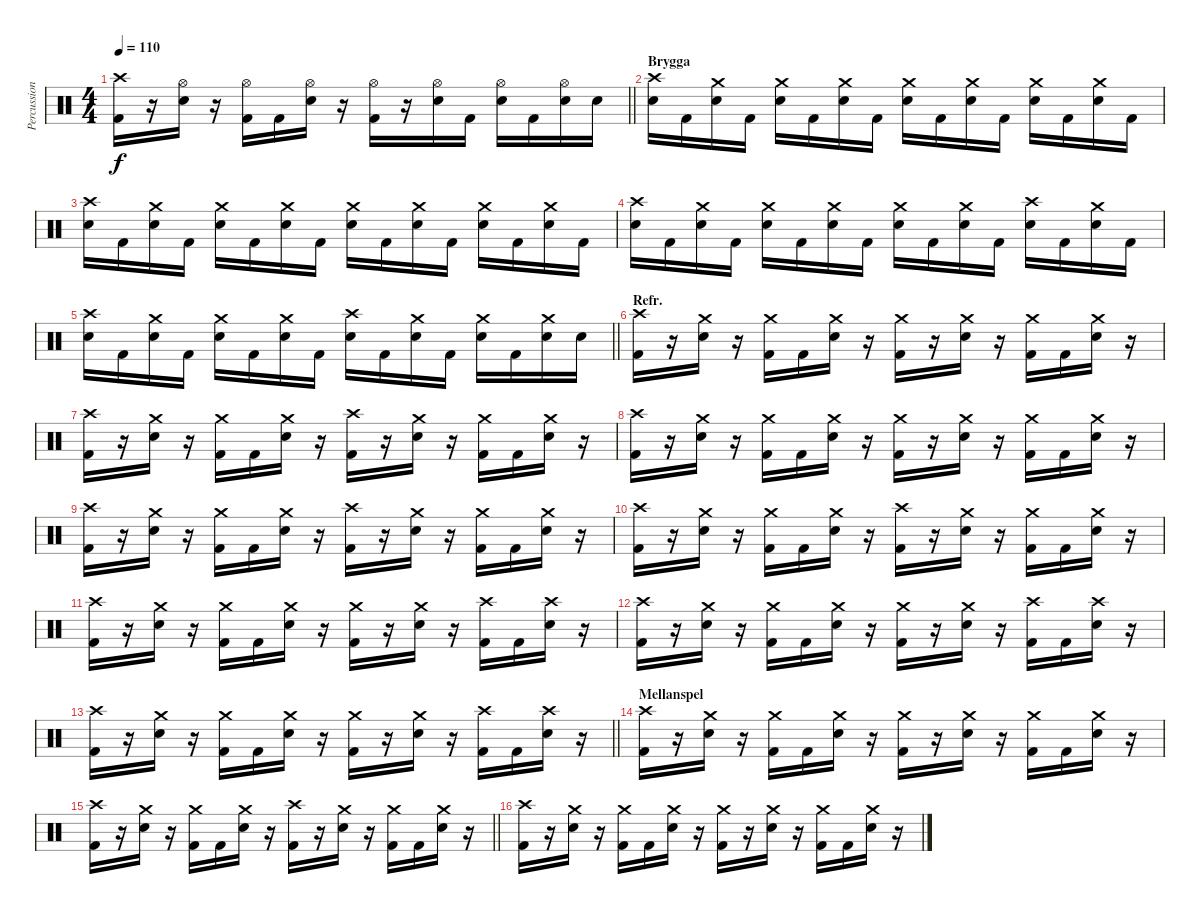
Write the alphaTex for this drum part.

\track ("Percussion" "Percussion") {instrument percussion}
\staff {score}
\articulation defaults
\ts (4 4)
\tempo 110
\clef neutral
\barLineRight lightlight
\ks c
("Crash high (hit)" "Kick (hit) 2").16{dy f} r.16 ("Hi-Hat (open)" "Snare (hit) 2").16 r.16 ("Hi-Hat (open)" "Kick (hit) 2").16 "Kick (hit) 2".16 ("Hi-Hat (open)" "Snare (hit) 2").16 r.16 ("Hi-Hat (open)" "Kick (hit) 2").16 r.16 ("Hi-Hat (open)" "Snare (hit) 2").16 "Kick (hit) 2".16 ("Hi-Hat (open)" "Snare (hit) 2").16 "Kick (hit) 2".16 ("Hi-Hat (open)" "Snare (hit) 2").16 "Snare (hit) 2".16 |
\section ("" "Brygga")
("Crash high (hit)" "Snare (hit) 2").16 "Kick (hit) 2".16 ("Crash medium (hit)" "Snare (hit) 2").16 "Kick (hit) 2".16 ("Crash medium (hit)" "Snare (hit) 2").16 "Kick (hit) 2".16 ("Crash medium (hit)" "Snare (hit) 2").16 "Kick (hit) 2".16 ("Crash medium (hit)" "Snare (hit) 2").16 "Kick (hit) 2".16 ("Crash medium (hit)" "Snare (hit) 2").16 "Kick (hit) 2".16 ("Crash medium (hit)" "Snare (hit) 2").16 "Kick (hit) 2".16 ("Crash medium (hit)" "Snare (hit) 2").16 "Kick (hit) 2".16 |
("Crash high (hit)" "Snare (hit) 2").16 "Kick (hit) 2".16 ("Crash medium (hit)" "Snare (hit) 2").16 "Kick (hit) 2".16 ("Crash medium (hit)" "Snare (hit) 2").16 "Kick (hit) 2".16 ("Crash medium (hit)" "Snare (hit) 2").16 "Kick (hit) 2".16 ("Crash medium (hit)" "Snare (hit) 2").16 "Kick (hit) 2".16 ("Crash medium (hit)" "Snare (hit) 2").16 "Kick (hit) 2".16 ("Crash medium (hit)" "Snare (hit) 2").16 "Kick (hit) 2".16 ("Crash medium (hit)" "Snare (hit) 2").16 "Kick (hit) 2".16 |
("Crash high (hit)" "Snare (hit) 2").16 "Kick (hit) 2".16 ("Crash medium (hit)" "Snare (hit) 2").16 "Kick (hit) 2".16 ("Crash medium (hit)" "Snare (hit) 2").16 "Kick (hit) 2".16 ("Crash medium (hit)" "Snare (hit) 2").16 "Kick (hit) 2".16 ("Crash medium (hit)" "Snare (hit) 2").16 "Kick (hit) 2".16 ("Crash medium (hit)" "Snare (hit) 2").16 "Kick (hit) 2".16 ("Crash high (hit)" "Snare (hit) 2").16 "Kick (hit) 2".16 ("Crash medium (hit)" "Snare (hit) 2").16 "Kick (hit) 2".16 |
\barLineRight lightlight
("Crash high (hit)" "Snare (hit) 2").16 "Kick (hit) 2".16 ("Crash medium (hit)" "Snare (hit) 2").16 "Kick (hit) 2".16 ("Crash medium (hit)" "Snare (hit) 2").16 "Kick (hit) 2".16 ("Crash medium (hit)" "Snare (hit) 2").16 "Kick (hit) 2".16 ("Crash high (hit)" "Snare (hit) 2").16 "Kick (hit) 2".16 ("Crash medium (hit)" "Snare (hit) 2").16 "Kick (hit) 2".16 ("Crash medium (hit)" "Snare (hit) 2").16 "Kick (hit) 2".16 ("Crash medium (hit)" "Snare (hit) 2").16 "Snare (hit) 2".16 |
\section ("" "Refr.")
("Crash high (hit)" "Kick (hit) 2").16 r.16 ("Crash medium (hit)" "Snare (hit) 2").16 r.16 ("Crash medium (hit)" "Kick (hit) 2").16 "Kick (hit) 2".16 ("Crash medium (hit)" "Snare (hit) 2").16 r.16 ("Crash medium (hit)" "Kick (hit) 2").16 r.16 ("Crash medium (hit)" "Snare (hit) 2").16 r.16 ("Crash medium (hit)" "Kick (hit) 2").16 "Kick (hit) 2".16 ("Crash medium (hit)" "Snare (hit) 2").16 r.16 |
("Crash high (hit)" "Kick (hit) 2").16 r.16 ("Crash medium (hit)" "Snare (hit) 2").16 r.16 ("Crash medium (hit)" "Kick (hit) 2").16 "Kick (hit) 2".16 ("Crash medium (hit)" "Snare (hit) 2").16 r.16 ("Crash high (hit)" "Kick (hit) 2").16 r.16 ("Crash medium (hit)" "Snare (hit) 2").16 r.16 ("Crash medium (hit)" "Kick (hit) 2").16 "Kick (hit) 2".16 ("Crash medium (hit)" "Snare (hit) 2").16 r.16 |
("Crash high (hit)" "Kick (hit) 2").16 r.16 ("Crash medium (hit)" "Snare (hit) 2").16 r.16 ("Crash medium (hit)" "Kick (hit) 2").16 "Kick (hit) 2".16 ("Crash medium (hit)" "Snare (hit) 2").16 r.16 ("Crash medium (hit)" "Kick (hit) 2").16 r.16 ("Crash medium (hit)" "Snare (hit) 2").16 r.16 ("Crash medium (hit)" "Kick (hit) 2").16 "Kick (hit) 2".16 ("Crash medium (hit)" "Snare (hit) 2").16 r.16 |
("Crash high (hit)" "Kick (hit) 2").16 r.16 ("Crash medium (hit)" "Snare (hit) 2").16 r.16 ("Crash medium (hit)" "Kick (hit) 2").16 "Kick (hit) 2".16 ("Crash medium (hit)" "Snare (hit) 2").16 r.16 ("Crash high (hit)" "Kick (hit) 2").16 r.16 ("Crash medium (hit)" "Snare (hit) 2").16 r.16 ("Crash medium (hit)" "Kick (hit) 2").16 "Kick (hit) 2".16 ("Crash medium (hit)" "Snare (hit) 2").16 r.16 |
("Crash high (hit)" "Kick (hit) 2").16 r.16 ("Crash medium (hit)" "Snare (hit) 2").16 r.16 ("Crash medium (hit)" "Kick (hit) 2").16 "Kick (hit) 2".16 ("Crash medium (hit)" "Snare (hit) 2").16 r.16 ("Crash high (hit)" "Kick (hit) 2").16 r.16 ("Crash medium (hit)" "Snare (hit) 2").16 r.16 ("Crash medium (hit)" "Kick (hit) 2").16 "Kick (hit) 2".16 ("Crash medium (hit)" "Snare (hit) 2").16 r.16 |
("Crash high (hit)" "Kick (hit) 2").16 r.16 ("Crash medium (hit)" "Snare (hit) 2").16 r.16 ("Crash medium (hit)" "Kick (hit) 2").16 "Kick (hit) 2".16 ("Crash medium (hit)" "Snare (hit) 2").16 r.16 ("Crash medium (hit)" "Kick (hit) 2").16 r.16 ("Crash medium (hit)" "Snare (hit) 2").16 r.16 ("Crash high (hit)" "Kick (hit) 2").16 "Kick (hit) 2".16 ("Crash high (hit)" "Snare (hit) 2").16 r.16 |
("Crash high (hit)" "Kick (hit) 2").16 r.16 ("Crash medium (hit)" "Snare (hit) 2").16 r.16 ("Crash medium (hit)" "Kick (hit) 2").16 "Kick (hit) 2".16 ("Crash medium (hit)" "Snare (hit) 2").16 r.16 ("Crash medium (hit)" "Kick (hit) 2").16 r.16 ("Crash medium (hit)" "Snare (hit) 2").16 r.16 ("Crash high (hit)" "Kick (hit) 2").16 "Kick (hit) 2".16 ("Crash high (hit)" "Snare (hit) 2").16 r.16 |
\barLineRight lightlight
("Crash high (hit)" "Kick (hit) 2").16 r.16 ("Crash medium (hit)" "Snare (hit) 2").16 r.16 ("Crash medium (hit)" "Kick (hit) 2").16 "Kick (hit) 2".16 ("Crash medium (hit)" "Snare (hit) 2").16 r.16 ("Crash medium (hit)" "Kick (hit) 2").16 r.16 ("Crash medium (hit)" "Snare (hit) 2").16 r.16 ("Crash high (hit)" "Kick (hit) 2").16 "Kick (hit) 2".16 ("Crash high (hit)" "Snare (hit) 2").16 r.16 |
\section ("" "Mellanspel")
("Crash high (hit)" "Kick (hit) 2").16 r.16 ("Crash medium (hit)" "Snare (hit) 2").16 r.16 ("Crash medium (hit)" "Kick (hit) 2").16 "Kick (hit) 2".16 ("Crash medium (hit)" "Snare (hit) 2").16 r.16 ("Crash medium (hit)" "Kick (hit) 2").16 r.16 ("Crash medium (hit)" "Snare (hit) 2").16 r.16 ("Crash medium (hit)" "Kick (hit) 2").16 "Kick (hit) 2".16 ("Crash medium (hit)" "Snare (hit) 2").16 r.16 |
\barLineRight lightlight
("Crash high (hit)" "Kick (hit) 2").16 r.16 ("Crash medium (hit)" "Snare (hit) 2").16 r.16 ("Crash medium (hit)" "Kick (hit) 2").16 "Kick (hit) 2".16 ("Crash medium (hit)" "Snare (hit) 2").16 r.16 ("Crash high (hit)" "Kick (hit) 2").16 r.16 ("Crash medium (hit)" "Snare (hit) 2").16 r.16 ("Crash medium (hit)" "Kick (hit) 2").16 "Kick (hit) 2".16 ("Crash medium (hit)" "Snare (hit) 2").16 r.16 |
("Crash high (hit)" "Kick (hit) 2").16 r.16 ("Crash medium (hit)" "Snare (hit) 2").16 r.16 ("Crash medium (hit)" "Kick (hit) 2").16 "Kick (hit) 2".16 ("Crash medium (hit)" "Snare (hit) 2").16 r.16 ("Crash medium (hit)" "Kick (hit) 2").16 r.16 ("Crash medium (hit)" "Snare (hit) 2").16 r.16 ("Crash medium (hit)" "Kick (hit) 2").16 "Kick (hit) 2".16 ("Crash medium (hit)" "Snare (hit) 2").16 r.16
